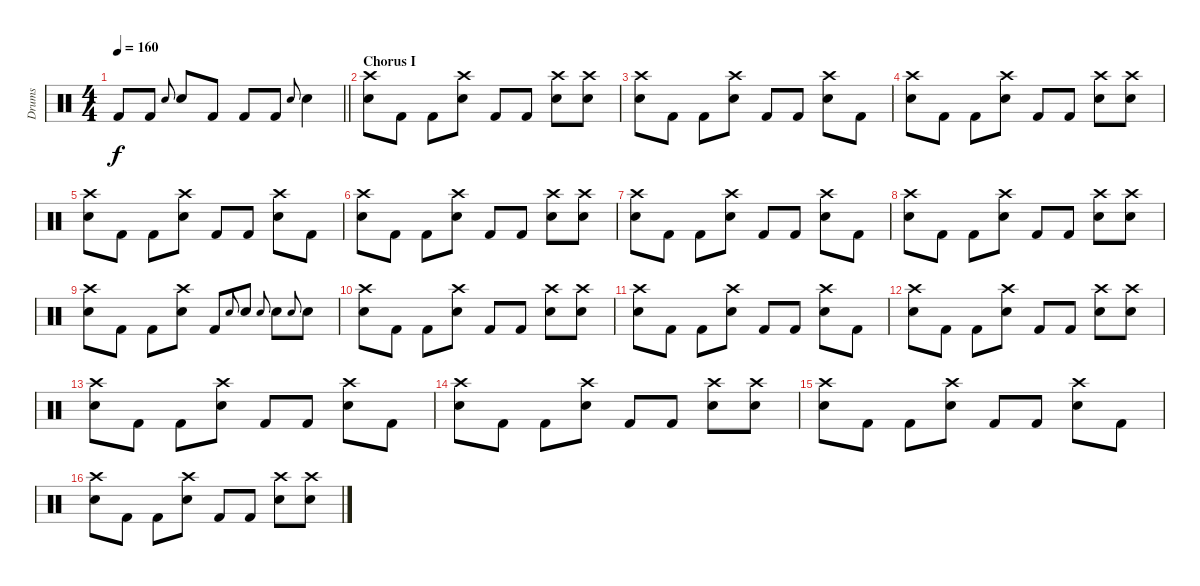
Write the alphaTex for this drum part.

\track ("Drums" "Drums") {instrument percussion}
\staff {score}
\articulation defaults
\ts (4 4)
\tempo 160
\clef neutral
\barLineRight lightlight
\ks c "Kick (hit) 2".8{dy f} "Kick (hit) 2".8 "Electric Snare (hit)".8{gr onbeat} "Electric Snare (hit)".8 "Kick (hit) 2".8 "Kick (hit) 2".8 "Kick (hit) 2".8 "Electric Snare (hit)".8{gr onbeat} "Electric Snare (hit)".4
|
\section ("" "Chorus I")
("Electric Snare (hit)" "Crash high (hit)").8 "Kick (hit) 2".8 "Kick (hit) 2".8 ("Electric Snare (hit)" "Crash high (hit)").8 "Kick (hit) 2".8 "Kick (hit) 2".8 ("Electric Snare (hit)" "Crash high (hit)").8 ("Electric Snare (hit)" "Crash high (hit)").8 |
("Electric Snare (hit)" "Crash high (hit)").8 "Kick (hit) 2".8 "Kick (hit) 2".8 ("Electric Snare (hit)" "Crash high (hit)").8 "Kick (hit) 2".8 "Kick (hit) 2".8 ("Electric Snare (hit)" "Crash high (hit)").8 "Kick (hit) 2".8 |
("Electric Snare (hit)" "Crash high (hit)").8 "Kick (hit) 2".8 "Kick (hit) 2".8 ("Electric Snare (hit)" "Crash high (hit)").8 "Kick (hit) 2".8 "Kick (hit) 2".8 ("Electric Snare (hit)" "Crash high (hit)").8 ("Electric Snare (hit)" "Crash high (hit)").8 |
("Electric Snare (hit)" "Crash high (hit)").8 "Kick (hit) 2".8 "Kick (hit) 2".8 ("Electric Snare (hit)" "Crash high (hit)").8 "Kick (hit) 2".8 "Kick (hit) 2".8 ("Electric Snare (hit)" "Crash high (hit)").8 "Kick (hit) 2".8 |
("Electric Snare (hit)" "Crash high (hit)").8 "Kick (hit) 2".8 "Kick (hit) 2".8 ("Electric Snare (hit)" "Crash high (hit)").8 "Kick (hit) 2".8 "Kick (hit) 2".8 ("Electric Snare (hit)" "Crash high (hit)").8 ("Electric Snare (hit)" "Crash high (hit)").8 |
("Electric Snare (hit)" "Crash high (hit)").8 "Kick (hit) 2".8 "Kick (hit) 2".8 ("Electric Snare (hit)" "Crash high (hit)").8 "Kick (hit) 2".8 "Kick (hit) 2".8 ("Electric Snare (hit)" "Crash high (hit)").8 "Kick (hit) 2".8 |
("Electric Snare (hit)" "Crash high (hit)").8 "Kick (hit) 2".8 "Kick (hit) 2".8 ("Electric Snare (hit)" "Crash high (hit)").8 "Kick (hit) 2".8 "Kick (hit) 2".8 ("Electric Snare (hit)" "Crash high (hit)").8 ("Electric Snare (hit)" "Crash high (hit)").8 |
("Electric Snare (hit)" "Crash high (hit)").8 "Kick (hit) 2".8 "Kick (hit) 2".8 ("Electric Snare (hit)" "Crash high (hit)").8 "Kick (hit) 2".8 "Electric Snare (hit)".8{gr onbeat} "Electric Snare (hit)".8 "Electric Snare (hit)".8{gr onbeat} "Electric Snare (hit)".8 "Electric Snare (hit)".8{gr onbeat} "Electric Snare (hit)".8 |
("Electric Snare (hit)" "Crash high (hit)").8 "Kick (hit) 2".8 "Kick (hit) 2".8 ("Electric Snare (hit)" "Crash high (hit)").8 "Kick (hit) 2".8 "Kick (hit) 2".8 ("Electric Snare (hit)" "Crash high (hit)").8 ("Electric Snare (hit)" "Crash high (hit)").8 |
("Electric Snare (hit)" "Crash high (hit)").8 "Kick (hit) 2".8 "Kick (hit) 2".8 ("Electric Snare (hit)" "Crash high (hit)").8 "Kick (hit) 2".8 "Kick (hit) 2".8 ("Electric Snare (hit)" "Crash high (hit)").8 "Kick (hit) 2".8 |
("Electric Snare (hit)" "Crash high (hit)").8 "Kick (hit) 2".8 "Kick (hit) 2".8 ("Electric Snare (hit)" "Crash high (hit)").8 "Kick (hit) 2".8 "Kick (hit) 2".8 ("Electric Snare (hit)" "Crash high (hit)").8 ("Electric Snare (hit)" "Crash high (hit)").8 |
("Electric Snare (hit)" "Crash high (hit)").8 "Kick (hit) 2".8 "Kick (hit) 2".8 ("Electric Snare (hit)" "Crash high (hit)").8 "Kick (hit) 2".8 "Kick (hit) 2".8 ("Electric Snare (hit)" "Crash high (hit)").8 "Kick (hit) 2".8 |
("Electric Snare (hit)" "Crash high (hit)").8 "Kick (hit) 2".8 "Kick (hit) 2".8 ("Electric Snare (hit)" "Crash high (hit)").8 "Kick (hit) 2".8 "Kick (hit) 2".8 ("Electric Snare (hit)" "Crash high (hit)").8 ("Electric Snare (hit)" "Crash high (hit)").8 |
("Electric Snare (hit)" "Crash high (hit)").8 "Kick (hit) 2".8 "Kick (hit) 2".8 ("Electric Snare (hit)" "Crash high (hit)").8 "Kick (hit) 2".8 "Kick (hit) 2".8 ("Electric Snare (hit)" "Crash high (hit)").8 "Kick (hit) 2".8 |
("Electric Snare (hit)" "Crash high (hit)").8 "Kick (hit) 2".8 "Kick (hit) 2".8 ("Electric Snare (hit)" "Crash high (hit)").8 "Kick (hit) 2".8 "Kick (hit) 2".8 ("Electric Snare (hit)" "Crash high (hit)").8 ("Electric Snare (hit)" "Crash high (hit)").8
